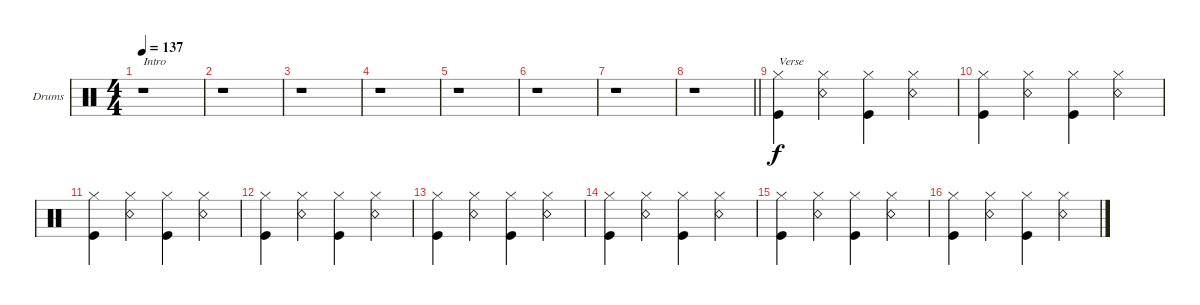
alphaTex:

\defaultSystemsLayout 4
\bracketExtendMode groupsimilarinstruments
\firstSystemTrackNameOrientation horizontal
\otherSystemsTrackNameOrientation horizontal
\track ("Drums" "Drums") {instrument percussion}
\staff {score}
\articulation defaults
\ts (4 4)
\tempo 137
\clef neutral
\scale
0.472222
\ks c
r.1{txt "Intro" dy f} |
\scale
0.263889 r.1 |
\scale
0.263889 r.1 |
\scale
0.333333 r.1 |
\scale
0.333333 r.1 |
\scale
0.333333 r.1 |
\scale
0.333333 r.1 |
\scale
0.333333
\barLineRight lightlight
r.1 |
\scale
0.333333 ("Kick (hit)" "Hi-Hat (closed)").4{txt "Verse"} ("Snare (rim shot)" "Hi-Hat (closed)").4 ("Kick (hit)" "Hi-Hat (closed)").4 ("Snare (rim shot)" "Hi-Hat (closed)").4 |
\scale
0.333333 ("Kick (hit)" "Hi-Hat (closed)").4 ("Snare (rim shot)" "Hi-Hat (closed)").4 ("Kick (hit)" "Hi-Hat (closed)").4 ("Snare (rim shot)" "Hi-Hat (closed)").4 |
\scale
0.333333 ("Kick (hit)" "Hi-Hat (closed)").4 ("Snare (rim shot)" "Hi-Hat (closed)").4 ("Kick (hit)" "Hi-Hat (closed)").4 ("Snare (rim shot)" "Hi-Hat (closed)").4 |
\scale
0.333333 ("Kick (hit)" "Hi-Hat (closed)").4 ("Snare (rim shot)" "Hi-Hat (closed)").4 ("Kick (hit)" "Hi-Hat (closed)").4 ("Snare (rim shot)" "Hi-Hat (closed)").4 |
\scale
0.333333 ("Kick (hit)" "Hi-Hat (closed)").4 ("Snare (rim shot)" "Hi-Hat (closed)").4 ("Kick (hit)" "Hi-Hat (closed)").4 ("Snare (rim shot)" "Hi-Hat (closed)").4 |
\scale
0.333333 ("Kick (hit)" "Hi-Hat (closed)").4 ("Snare (rim shot)" "Hi-Hat (closed)").4 ("Kick (hit)" "Hi-Hat (closed)").4 ("Snare (rim shot)" "Hi-Hat (closed)").4 |
\scale
0.333333 ("Kick (hit)" "Hi-Hat (closed)").4 ("Snare (rim shot)" "Hi-Hat (closed)").4 ("Kick (hit)" "Hi-Hat (closed)").4 ("Snare (rim shot)" "Hi-Hat (closed)").4 |
\scale
0.333333 ("Kick (hit)" "Hi-Hat (closed)").4 ("Snare (rim shot)" "Hi-Hat (closed)").4 ("Kick (hit)" "Hi-Hat (closed)").4 ("Snare (rim shot)" "Hi-Hat (closed)").4
